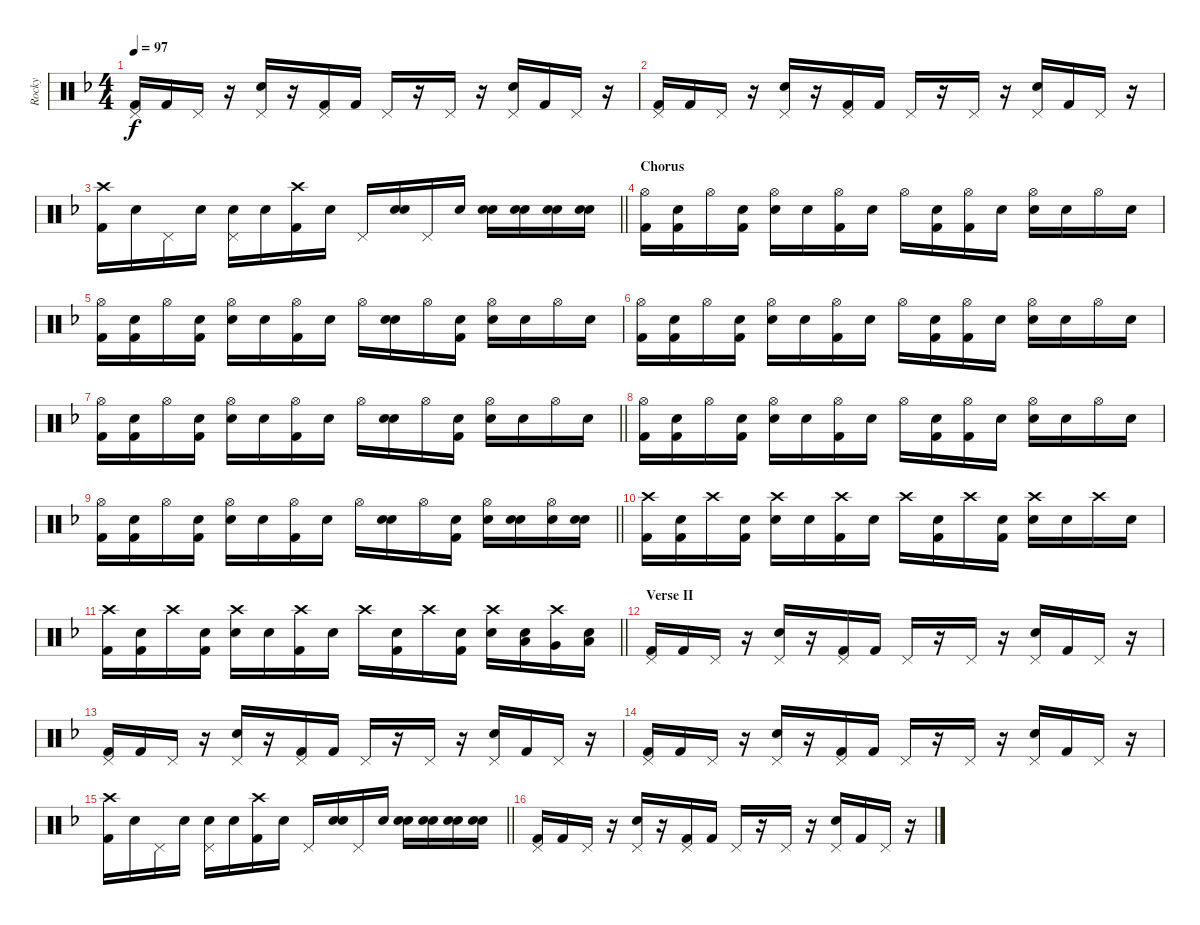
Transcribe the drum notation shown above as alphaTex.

\track ("Rocky" "Rocky") {instrument percussion}
\staff {score}
\articulation defaults
\ts (4 4)
\tempo 97
\clef neutral
\ks f
("Pedal Hi-Hat (hit)" "Kick (hit) 2").16{dy f} "Kick (hit) 2".16 "Pedal Hi-Hat (hit)".16 r.16 ("Pedal Hi-Hat (hit)" "Electric Snare (hit)").16 r.16 ("Pedal Hi-Hat (hit)" "Kick (hit) 2").16 "Kick (hit) 2".16 "Pedal Hi-Hat (hit)".16 r.16 "Pedal Hi-Hat (hit)".16 r.16 ("Pedal Hi-Hat (hit)" "Electric Snare (hit)").16 "Kick (hit) 2".16 "Pedal Hi-Hat (hit)".16 r.16 |
("Pedal Hi-Hat (hit)" "Kick (hit) 2").16 "Kick (hit) 2".16 "Pedal Hi-Hat (hit)".16 r.16 ("Pedal Hi-Hat (hit)" "Electric Snare (hit)").16 r.16 ("Pedal Hi-Hat (hit)" "Kick (hit) 2").16 "Kick (hit) 2".16 "Pedal Hi-Hat (hit)".16 r.16 "Pedal Hi-Hat (hit)".16 r.16 ("Pedal Hi-Hat (hit)" "Electric Snare (hit)").16 "Kick (hit) 2".16 "Pedal Hi-Hat (hit)".16 r.16 |
\barLineRight lightlight
("Crash high (hit)" "Kick (hit) 2").16 "Snare (hit)".16 "Pedal Hi-Hat (hit)".16 "Snare (hit)".16 ("Pedal Hi-Hat (hit)" "Electric Snare (hit)").16 "Snare (hit)".16 ("Crash high (hit)" "Kick (hit) 2").16 "Snare (hit)".16 "Pedal Hi-Hat (hit)".16 ("Snare (hit)" "Electric Snare (hit)").16 "Pedal Hi-Hat (hit)".16 "Snare (hit)".16 ("Snare (hit)" "Snare (hit) 2").16 ("Snare (hit)" "Snare (hit) 2").16 ("Snare (hit)" "Snare (hit) 2").16 ("Snare (hit)" "Snare (hit) 2").16 |
\section ("" "Chorus")
("Hi-Hat (open)" "Kick (hit) 2").16 ("Snare (hit)" "Kick (hit) 2").16 "Hi-Hat (open)".16 ("Snare (hit)" "Kick (hit) 2").16 ("Hi-Hat (open)" "Snare (hit) 2").16 "Snare (hit)".16 ("Hi-Hat (open)" "Kick (hit) 2").16 "Snare (hit)".16 "Hi-Hat (open)".16 ("Snare (hit)" "Kick (hit) 2").16 ("Hi-Hat (open)" "Kick (hit) 2").16 "Snare (hit)".16 ("Hi-Hat (open)" "Snare (hit) 2").16 "Snare (hit)".16 "Hi-Hat (open)".16 "Snare (hit)".16 |
("Hi-Hat (open)" "Kick (hit) 2").16 ("Snare (hit)" "Kick (hit) 2").16 "Hi-Hat (open)".16 ("Snare (hit)" "Kick (hit) 2").16 ("Hi-Hat (open)" "Snare (hit) 2").16 "Snare (hit)".16 ("Hi-Hat (open)" "Kick (hit) 2").16 "Snare (hit)".16 "Hi-Hat (open)".16 ("Snare (hit)" "Snare (hit) 2").16 "Hi-Hat (open)".16 ("Snare (hit)" "Kick (hit) 2").16 ("Hi-Hat (open)" "Snare (hit) 2").16 "Snare (hit)".16 "Hi-Hat (open)".16 "Snare (hit)".16 |
("Hi-Hat (open)" "Kick (hit) 2").16 ("Snare (hit)" "Kick (hit) 2").16 "Hi-Hat (open)".16 ("Snare (hit)" "Kick (hit) 2").16 ("Hi-Hat (open)" "Snare (hit) 2").16 "Snare (hit)".16 ("Hi-Hat (open)" "Kick (hit) 2").16 "Snare (hit)".16 "Hi-Hat (open)".16 ("Snare (hit)" "Kick (hit) 2").16 ("Hi-Hat (open)" "Kick (hit) 2").16 "Snare (hit)".16 ("Hi-Hat (open)" "Snare (hit) 2").16 "Snare (hit)".16 "Hi-Hat (open)".16 "Snare (hit)".16 |
\barLineRight lightlight
("Hi-Hat (open)" "Kick (hit) 2").16 ("Snare (hit)" "Kick (hit) 2").16 "Hi-Hat (open)".16 ("Snare (hit)" "Kick (hit) 2").16 ("Hi-Hat (open)" "Snare (hit) 2").16 "Snare (hit)".16 ("Hi-Hat (open)" "Kick (hit) 2").16 "Snare (hit)".16 "Hi-Hat (open)".16 ("Snare (hit)" "Snare (hit) 2").16 "Hi-Hat (open)".16 ("Snare (hit)" "Kick (hit) 2").16 ("Hi-Hat (open)" "Snare (hit) 2").16 "Snare (hit)".16 "Hi-Hat (open)".16 "Snare (hit)".16 |
("Hi-Hat (open)" "Kick (hit) 2").16 ("Snare (hit)" "Kick (hit) 2").16 "Hi-Hat (open)".16 ("Snare (hit)" "Kick (hit) 2").16 ("Hi-Hat (open)" "Snare (hit) 2").16 "Snare (hit)".16 ("Hi-Hat (open)" "Kick (hit) 2").16 "Snare (hit)".16 "Hi-Hat (open)".16 ("Snare (hit)" "Kick (hit) 2").16 ("Hi-Hat (open)" "Kick (hit) 2").16 "Snare (hit)".16 ("Hi-Hat (open)" "Snare (hit) 2").16 "Snare (hit)".16 "Hi-Hat (open)".16 "Snare (hit)".16 |
\barLineRight lightlight
("Hi-Hat (open)" "Kick (hit) 2").16 ("Snare (hit)" "Kick (hit) 2").16 "Hi-Hat (open)".16 ("Snare (hit)" "Kick (hit) 2").16 ("Hi-Hat (open)" "Snare (hit) 2").16 "Snare (hit)".16 ("Hi-Hat (open)" "Kick (hit) 2").16 "Snare (hit)".16 "Hi-Hat (open)".16 ("Snare (hit)" "Snare (hit) 2").16 "Hi-Hat (open)".16 ("Snare (hit)" "Kick (hit) 2").16 ("Hi-Hat (open)" "Snare (hit) 2").16 ("Snare (hit)" "Snare (hit) 2").16 ("Hi-Hat (open)" "Snare (hit) 2").16 ("Snare (hit)" "Snare (hit) 2").16 |
("Crash high (hit)" "Kick (hit) 2").16 ("Snare (hit)" "Kick (hit) 2").16 "Crash high (hit)".16 ("Snare (hit)" "Kick (hit) 2").16 ("Crash high (hit)" "Snare (hit) 2").16 "Snare (hit)".16 ("Crash high (hit)" "Kick (hit) 2").16 "Snare (hit)".16 "Crash high (hit)".16 ("Snare (hit)" "Kick (hit) 2").16 "Crash high (hit)".16 ("Snare (hit)" "Kick (hit) 2").16 ("Crash high (hit)" "Snare (hit) 2").16 "Snare (hit)".16 "Crash high (hit)".16 "Snare (hit)".16 |
\barLineRight lightlight
("Crash high (hit)" "Kick (hit) 2").16 ("Snare (hit)" "Kick (hit) 2").16 "Crash high (hit)".16 ("Snare (hit)" "Kick (hit) 2").16 ("Crash high (hit)" "Snare (hit) 2").16 "Snare (hit)".16 ("Crash high (hit)" "Kick (hit) 2").16 "Snare (hit)".16 "Crash high (hit)".16 ("Snare (hit)" "Kick (hit) 2").16 "Crash high (hit)".16 ("Snare (hit)" "Kick (hit) 2").16 ("Crash high (hit)" "Snare (hit) 2").16 ("Snare (hit)" "Low Tom (hit)").16 ("Crash high (hit)" "Very Low Tom (hit)").16 ("Snare (hit)" "Low Floor Tom (hit)").16 |
\section ("" "Verse II")
("Pedal Hi-Hat (hit)" "Kick (hit) 2").16 "Kick (hit) 2".16 "Pedal Hi-Hat (hit)".16 r.16 ("Pedal Hi-Hat (hit)" "Electric Snare (hit)").16 r.16 ("Pedal Hi-Hat (hit)" "Kick (hit) 2").16 "Kick (hit) 2".16 "Pedal Hi-Hat (hit)".16 r.16 "Pedal Hi-Hat (hit)".16 r.16 ("Pedal Hi-Hat (hit)" "Electric Snare (hit)").16 "Kick (hit) 2".16 "Pedal Hi-Hat (hit)".16 r.16 |
("Pedal Hi-Hat (hit)" "Kick (hit) 2").16 "Kick (hit) 2".16 "Pedal Hi-Hat (hit)".16 r.16 ("Pedal Hi-Hat (hit)" "Electric Snare (hit)").16 r.16 ("Pedal Hi-Hat (hit)" "Kick (hit) 2").16 "Kick (hit) 2".16 "Pedal Hi-Hat (hit)".16 r.16 "Pedal Hi-Hat (hit)".16 r.16 ("Pedal Hi-Hat (hit)" "Electric Snare (hit)").16 "Kick (hit) 2".16 "Pedal Hi-Hat (hit)".16 r.16 |
("Pedal Hi-Hat (hit)" "Kick (hit) 2").16 "Kick (hit) 2".16 "Pedal Hi-Hat (hit)".16 r.16 ("Pedal Hi-Hat (hit)" "Electric Snare (hit)").16 r.16 ("Pedal Hi-Hat (hit)" "Kick (hit) 2").16 "Kick (hit) 2".16 "Pedal Hi-Hat (hit)".16 r.16 "Pedal Hi-Hat (hit)".16 r.16 ("Pedal Hi-Hat (hit)" "Electric Snare (hit)").16 "Kick (hit) 2".16 "Pedal Hi-Hat (hit)".16 r.16 |
\barLineRight lightlight
("Crash high (hit)" "Kick (hit) 2").16 "Snare (hit)".16 "Pedal Hi-Hat (hit)".16 "Snare (hit)".16 ("Pedal Hi-Hat (hit)" "Electric Snare (hit)").16 "Snare (hit)".16 ("Crash high (hit)" "Kick (hit) 2").16 "Snare (hit)".16 "Pedal Hi-Hat (hit)".16 ("Snare (hit)" "Electric Snare (hit)").16 "Pedal Hi-Hat (hit)".16 "Snare (hit)".16 ("Snare (hit)" "Snare (hit) 2").16 ("Snare (hit)" "Snare (hit) 2").16 ("Snare (hit)" "Snare (hit) 2").16 ("Snare (hit)" "Snare (hit) 2").16 |
("Pedal Hi-Hat (hit)" "Kick (hit) 2").16 "Kick (hit) 2".16 "Pedal Hi-Hat (hit)".16 r.16 ("Pedal Hi-Hat (hit)" "Electric Snare (hit)").16 r.16 ("Pedal Hi-Hat (hit)" "Kick (hit) 2").16 "Kick (hit) 2".16 "Pedal Hi-Hat (hit)".16 r.16 "Pedal Hi-Hat (hit)".16 r.16 ("Pedal Hi-Hat (hit)" "Electric Snare (hit)").16 "Kick (hit) 2".16 "Pedal Hi-Hat (hit)".16 r.16
